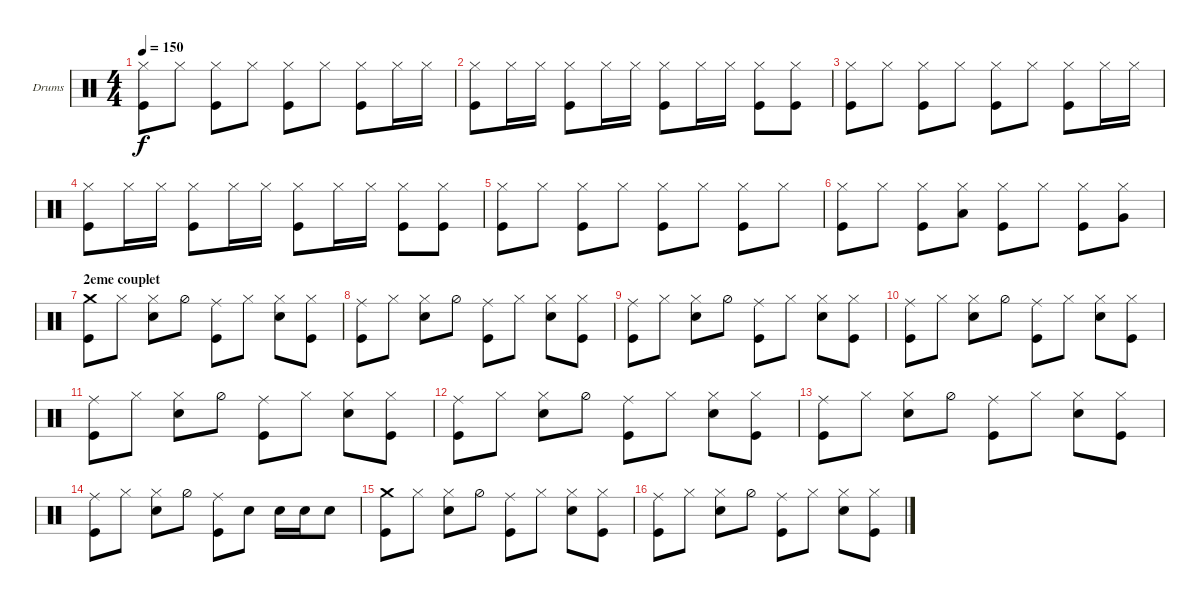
\bracketExtendMode groupsimilarinstruments
\firstSystemTrackNameOrientation horizontal
\otherSystemsTrackNameOrientation horizontal
\track ("Drumkit" "Drums") {instrument percussion}
\staff {score}
\articulation defaults
\ts (4 4)
\tempo 150
\clef neutral
\ks c
("Hi-Hat (closed)" "Kick (hit)").8{dy f} "Hi-Hat (closed)".8 ("Hi-Hat (closed)" "Kick (hit)").8 "Hi-Hat (closed)".8 ("Hi-Hat (closed)" "Kick (hit)").8 "Hi-Hat (closed)".8 ("Hi-Hat (closed)" "Kick (hit)").8 "Hi-Hat (closed)".16 "Hi-Hat (closed)".16 |
("Hi-Hat (closed)" "Kick (hit)").8 "Hi-Hat (closed)".16 "Hi-Hat (closed)".16 ("Hi-Hat (closed)" "Kick (hit)").8 "Hi-Hat (closed)".16 "Hi-Hat (closed)".16 ("Hi-Hat (closed)" "Kick (hit)").8 "Hi-Hat (closed)".16 "Hi-Hat (closed)".16 ("Hi-Hat (closed)" "Kick (hit)").8 ("Hi-Hat (closed)" "Kick (hit)").8 |
("Hi-Hat (closed)" "Kick (hit)").8 "Hi-Hat (closed)".8 ("Hi-Hat (closed)" "Kick (hit)").8 "Hi-Hat (closed)".8 ("Hi-Hat (closed)" "Kick (hit)").8 "Hi-Hat (closed)".8 ("Hi-Hat (closed)" "Kick (hit)").8 "Hi-Hat (closed)".16 "Hi-Hat (closed)".16 |
("Hi-Hat (closed)" "Kick (hit)").8 "Hi-Hat (closed)".16 "Hi-Hat (closed)".16 ("Hi-Hat (closed)" "Kick (hit)").8 "Hi-Hat (closed)".16 "Hi-Hat (closed)".16 ("Hi-Hat (closed)" "Kick (hit)").8 "Hi-Hat (closed)".16 "Hi-Hat (closed)".16 ("Hi-Hat (closed)" "Kick (hit)").8 ("Hi-Hat (closed)" "Kick (hit)").8 |
("Hi-Hat (closed)" "Kick (hit)").8 "Hi-Hat (closed)".8 ("Hi-Hat (closed)" "Kick (hit)").8 "Hi-Hat (closed)".8 ("Hi-Hat (closed)" "Kick (hit)").8 "Hi-Hat (closed)".8 ("Hi-Hat (closed)" "Kick (hit)").8 "Hi-Hat (closed)".8 |
("Hi-Hat (closed)" "Kick (hit)").8 "Hi-Hat (closed)".8 ("Hi-Hat (closed)" "Kick (hit)").8 ("Hi-Hat (closed)" "Low Tom (hit)").8 ("Hi-Hat (closed)" "Kick (hit)").8 "Hi-Hat (closed)".8 ("Hi-Hat (closed)" "Kick (hit)").8 ("Hi-Hat (closed)" "Very Low Tom (hit)").8 |
\section ("" "2eme couplet")
("Crash medium (hit)" "Kick (hit)").8 "Hi-Hat (closed)".8 ("Snare (hit) 2" "Hi-Hat (closed)").8 "Hi-Hat (half)".8 ("Kick (hit)" "Ride (middle)").8 "Hi-Hat (closed)".8 ("Hi-Hat (closed)" "Snare (hit) 2").8 ("Hi-Hat (closed)" "Kick (hit)").8 |
("Kick (hit)" "Ride (middle)").8 "Hi-Hat (closed)".8 ("Hi-Hat (closed)" "Snare (hit) 2").8 "Hi-Hat (half)".8 ("Kick (hit)" "Ride (middle)").8 "Hi-Hat (closed)".8 ("Hi-Hat (closed)" "Snare (hit) 2").8 ("Hi-Hat (closed)" "Kick (hit)").8 |
("Kick (hit)" "Ride (middle)").8 "Hi-Hat (closed)".8 ("Hi-Hat (closed)" "Snare (hit) 2").8 "Hi-Hat (half)".8 ("Kick (hit)" "Ride (middle)").8 "Hi-Hat (closed)".8 ("Hi-Hat (closed)" "Snare (hit) 2").8 ("Hi-Hat (closed)" "Kick (hit)").8 |
("Kick (hit)" "Ride (middle)").8 "Hi-Hat (closed)".8 ("Hi-Hat (closed)" "Snare (hit) 2").8 "Hi-Hat (half)".8 ("Kick (hit)" "Ride (middle)").8 "Hi-Hat (closed)".8 ("Hi-Hat (closed)" "Snare (hit) 2").8 ("Hi-Hat (closed)" "Kick (hit)").8 |
("Kick (hit)" "Ride (middle)").8 "Hi-Hat (closed)".8 ("Hi-Hat (closed)" "Snare (hit) 2").8 "Hi-Hat (half)".8 ("Kick (hit)" "Ride (middle)").8 "Hi-Hat (closed)".8 ("Hi-Hat (closed)" "Snare (hit) 2").8 ("Hi-Hat (closed)" "Kick (hit)").8 |
("Kick (hit)" "Ride (middle)").8 "Hi-Hat (closed)".8 ("Hi-Hat (closed)" "Snare (hit) 2").8 "Hi-Hat (half)".8 ("Kick (hit)" "Ride (middle)").8 "Hi-Hat (closed)".8 ("Hi-Hat (closed)" "Snare (hit) 2").8 ("Hi-Hat (closed)" "Kick (hit)").8 |
("Kick (hit)" "Ride (middle)").8 "Hi-Hat (closed)".8 ("Hi-Hat (closed)" "Snare (hit) 2").8 "Hi-Hat (half)".8 ("Kick (hit)" "Ride (middle)").8 "Hi-Hat (closed)".8 ("Hi-Hat (closed)" "Snare (hit) 2").8 ("Hi-Hat (closed)" "Kick (hit)").8 |
("Kick (hit)" "Ride (middle)").8 "Hi-Hat (closed)".8 ("Hi-Hat (closed)" "Snare (hit) 2").8 "Hi-Hat (half)".8 ("Kick (hit)" "Ride (middle)").8 "Snare (hit) 2".8 "Snare (hit) 2".16 "Snare (hit) 2".16 "Snare (hit) 2".8 |
("Crash medium (hit)" "Kick (hit)").8 "Hi-Hat (closed)".8 ("Hi-Hat (closed)" "Snare (hit) 2").8 "Hi-Hat (half)".8 ("Kick (hit)" "Ride (middle)").8 "Hi-Hat (closed)".8 ("Hi-Hat (closed)" "Snare (hit) 2").8 ("Hi-Hat (closed)" "Kick (hit)").8 |
("Kick (hit)" "Ride (middle)").8 "Hi-Hat (closed)".8 ("Hi-Hat (closed)" "Snare (hit) 2").8 "Hi-Hat (half)".8 ("Kick (hit)" "Ride (middle)").8 "Hi-Hat (closed)".8 ("Hi-Hat (closed)" "Snare (hit) 2").8 ("Hi-Hat (closed)" "Kick (hit)").8
